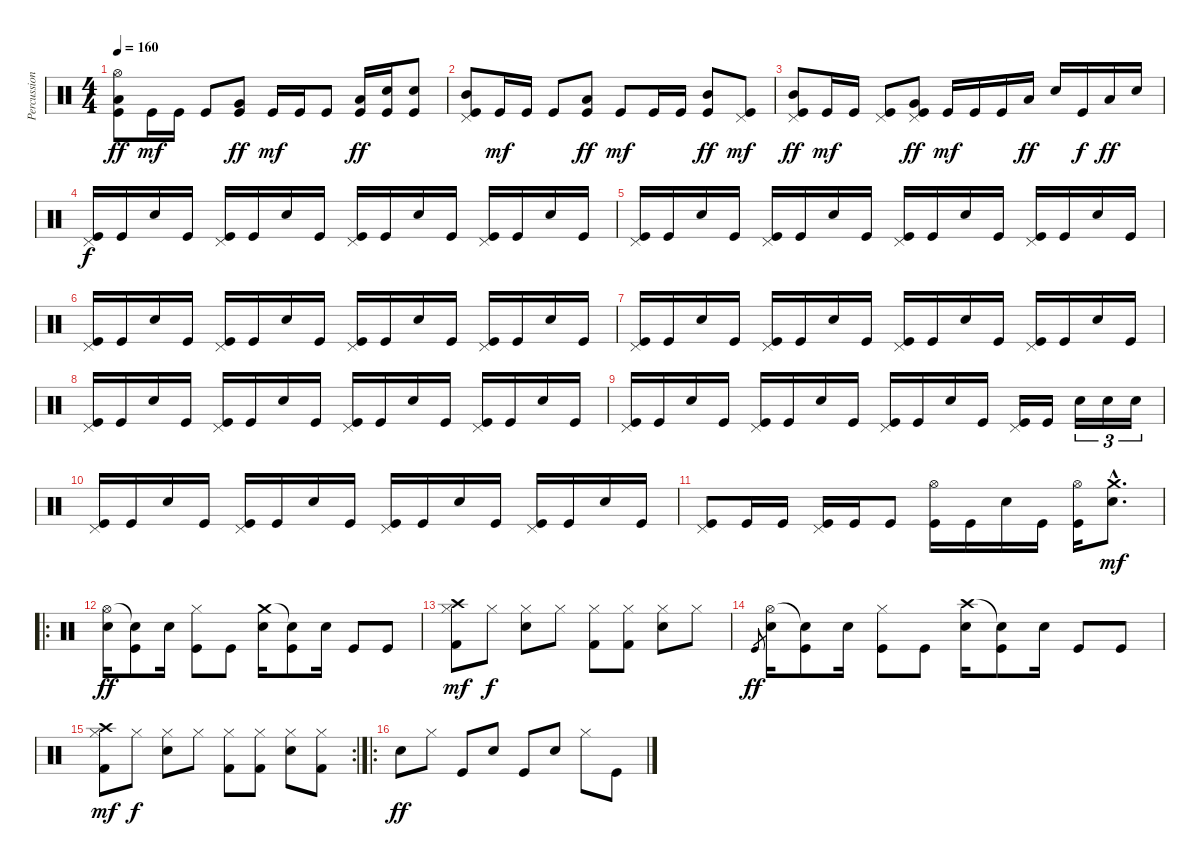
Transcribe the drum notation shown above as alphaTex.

\track ("Percussion" "Percussion") {instrument percussion}
\staff {score}
\articulation defaults
\ts (4 4)
\tempo 160
\clef neutral
\ks c
("Kick (hit)" "Low Tom (hit)" "Hi-Hat (open)").8{dy ff} "Kick (hit)".16{dy mf} "Kick (hit)".16 "Kick (hit)".8 ("Kick (hit)" "Very Low Tom (hit)").8{dy ff} "Kick (hit)".16{dy mf} "Kick (hit)".16 "Kick (hit)".8 ("Kick (hit)" "Low Floor Tom (hit)").16{dy ff} ("Kick (hit)" "Electric Snare (hit)").16 ("Kick (hit)" "Snare (hit) 2").8 |
("Kick (hit)" "Mid Tom (hit)" "Pedal Hi-Hat (hit)").8 "Kick (hit)".16{dy mf} "Kick (hit)".16 "Kick (hit)".8 ("Kick (hit)" "Low Tom (hit)").8{dy ff} "Kick (hit)".8{dy mf} "Kick (hit)".16 "Kick (hit)".16 ("Kick (hit)" "Mid Tom (hit)").8{dy ff} ("Kick (hit)" "Pedal Hi-Hat (hit)").8{dy mf} |
("Kick (hit)" "Mid Tom (hit)" "Pedal Hi-Hat (hit)").8{dy ff} "Kick (hit)".16{dy mf} "Kick (hit)".16 ("Kick (hit)" "Pedal Hi-Hat (hit)").8 ("Kick (hit)" "Very Low Tom (hit)" "Pedal Hi-Hat (hit)").8{dy ff} "Kick (hit)".16{dy mf} "Kick (hit)".16 "Kick (hit)".16 "Low Tom (hit)".16{dy ff} "Electric Snare (hit)".16 "Kick (hit)".16{dy f} "Low Tom (hit)".16{dy ff} "Electric Snare (hit)".16 |
("Kick (hit)" "Pedal Hi-Hat (hit)").16{dy f} "Kick (hit)".16 "Electric Snare (hit)".16 "Kick (hit)".16 ("Kick (hit)" "Pedal Hi-Hat (hit)").16 "Kick (hit)".16 "Electric Snare (hit)".16 "Kick (hit)".16 ("Kick (hit)" "Pedal Hi-Hat (hit)").16 "Kick (hit)".16 "Electric Snare (hit)".16 "Kick (hit)".16 ("Kick (hit)" "Pedal Hi-Hat (hit)").16 "Kick (hit)".16 "Electric Snare (hit)".16 "Kick (hit)".16 |
("Kick (hit)" "Pedal Hi-Hat (hit)").16 "Kick (hit)".16 "Electric Snare (hit)".16 "Kick (hit)".16 ("Kick (hit)" "Pedal Hi-Hat (hit)").16 "Kick (hit)".16 "Electric Snare (hit)".16 "Kick (hit)".16 ("Kick (hit)" "Pedal Hi-Hat (hit)").16 "Kick (hit)".16 "Electric Snare (hit)".16 "Kick (hit)".16 ("Kick (hit)" "Pedal Hi-Hat (hit)").16 "Kick (hit)".16 "Electric Snare (hit)".16 "Kick (hit)".16 |
("Kick (hit)" "Pedal Hi-Hat (hit)").16 "Kick (hit)".16 "Electric Snare (hit)".16 "Kick (hit)".16 ("Kick (hit)" "Pedal Hi-Hat (hit)").16 "Kick (hit)".16 "Electric Snare (hit)".16 "Kick (hit)".16 ("Kick (hit)" "Pedal Hi-Hat (hit)").16 "Kick (hit)".16 "Electric Snare (hit)".16 "Kick (hit)".16 ("Kick (hit)" "Pedal Hi-Hat (hit)").16 "Kick (hit)".16 "Electric Snare (hit)".16 "Kick (hit)".16 |
("Kick (hit)" "Pedal Hi-Hat (hit)").16 "Kick (hit)".16 "Electric Snare (hit)".16 "Kick (hit)".16 ("Kick (hit)" "Pedal Hi-Hat (hit)").16 "Kick (hit)".16 "Electric Snare (hit)".16 "Kick (hit)".16 ("Kick (hit)" "Pedal Hi-Hat (hit)").16 "Kick (hit)".16 "Electric Snare (hit)".16 "Kick (hit)".16 ("Kick (hit)" "Pedal Hi-Hat (hit)").16 "Kick (hit)".16 "Electric Snare (hit)".16 "Kick (hit)".16 |
("Kick (hit)" "Pedal Hi-Hat (hit)").16 "Kick (hit)".16 "Electric Snare (hit)".16 "Kick (hit)".16 ("Kick (hit)" "Pedal Hi-Hat (hit)").16 "Kick (hit)".16 "Electric Snare (hit)".16 "Kick (hit)".16 ("Kick (hit)" "Pedal Hi-Hat (hit)").16 "Kick (hit)".16 "Electric Snare (hit)".16 "Kick (hit)".16 ("Kick (hit)" "Pedal Hi-Hat (hit)").16 "Kick (hit)".16 "Electric Snare (hit)".16 "Kick (hit)".16 |
("Kick (hit)" "Pedal Hi-Hat (hit)").16 "Kick (hit)".16 "Electric Snare (hit)".16 "Kick (hit)".16 ("Kick (hit)" "Pedal Hi-Hat (hit)").16 "Kick (hit)".16 "Electric Snare (hit)".16 "Kick (hit)".16 ("Kick (hit)" "Pedal Hi-Hat (hit)").16 "Kick (hit)".16 "Electric Snare (hit)".16 "Kick (hit)".16 ("Kick (hit)" "Pedal Hi-Hat (hit)").16 "Kick (hit)".16 "Electric Snare (hit)".16{tu (3 2)} "Electric Snare (hit)".16{tu (3 2)} "Electric Snare (hit)".16{tu (3 2)} |
("Kick (hit)" "Pedal Hi-Hat (hit)").16 "Kick (hit)".16 "Electric Snare (hit)".16 "Kick (hit)".16 ("Kick (hit)" "Pedal Hi-Hat (hit)").16 "Kick (hit)".16 "Electric Snare (hit)".16 "Kick (hit)".16 ("Kick (hit)" "Pedal Hi-Hat (hit)").16 "Kick (hit)".16 "Electric Snare (hit)".16 "Kick (hit)".16 ("Kick (hit)" "Pedal Hi-Hat (hit)").16 "Kick (hit)".16 "Electric Snare (hit)".16 "Kick (hit)".16 |
("Kick (hit)" "Pedal Hi-Hat (hit)").8 "Kick (hit)".16 "Kick (hit)".16 ("Kick (hit)" "Pedal Hi-Hat (hit)").16 "Kick (hit)".16 "Kick (hit)".8 ("Kick (hit)" "Hi-Hat (open)").16 "Kick (hit)".16 "Snare (hit) 2".16 "Kick (hit)".16 ("Kick (hit)" "Hi-Hat (open)").16 ("Snare (hit) 2"{hac} "Crash medium (hit)"{hac}).8{d dy mf} |
\ro
("Electric Snare (hit)" "Hi-Hat (open)").16{dy ff} ("Kick (hit)" "Snare (hit)"{t}).8 "Electric Snare (hit)".16 ("Kick (hit)" "Hi-Hat (closed)").8 "Kick (hit)".8 ("Snare (hit) 2" "Crash medium (hit)").16 ("Kick (hit)" "Snare (hit)"{t}).8 "Snare (hit) 2".16 "Kick (hit)".8 "Kick (hit)".8 |
("Kick (hit) 2" "Hi-Hat (closed)" "Crash high (hit)").8{dy mf} "Hi-Hat (closed)".8{dy f} ("Snare (hit) 2" "Hi-Hat (closed)").8 "Hi-Hat (closed)".8 ("Kick (hit) 2" "Hi-Hat (closed)").8 ("Kick (hit) 2" "Hi-Hat (closed)").8 ("Snare (hit) 2" "Hi-Hat (closed)").8 "Hi-Hat (closed)".8 |
"Kick (hit)".8{gr dy ff} ("Electric Snare (hit)" "Hi-Hat (open)").16 ("Kick (hit)" "Snare (hit)"{t}).8 "Electric Snare (hit)".16 ("Kick (hit)" "Hi-Hat (closed)").8 "Kick (hit)".8 ("Snare (hit) 2" "Crash high (hit)").16 ("Kick (hit)" "Snare (hit)"{t}).8 "Snare (hit) 2".16 "Kick (hit)".8 "Kick (hit)".8 |
\rc 2
("Kick (hit) 2" "Hi-Hat (closed)" "Crash high (hit)").8{dy mf} "Hi-Hat (closed)".8{dy f} ("Snare (hit) 2" "Hi-Hat (closed)").8 "Hi-Hat (closed)".8 ("Kick (hit) 2" "Hi-Hat (closed)").8 ("Kick (hit) 2" "Hi-Hat (closed)").8 ("Snare (hit) 2" "Hi-Hat (closed)").8 ("Kick (hit) 2" "Hi-Hat (closed)").8 |
\ro "Electric Snare (hit)".8{dy ff} "Hi-Hat (closed)".8 "Kick (hit)".8 "Electric Snare (hit)".8 "Kick (hit)".8 "Electric Snare (hit)".8 "Hi-Hat (closed)".8 "Kick (hit)".8
